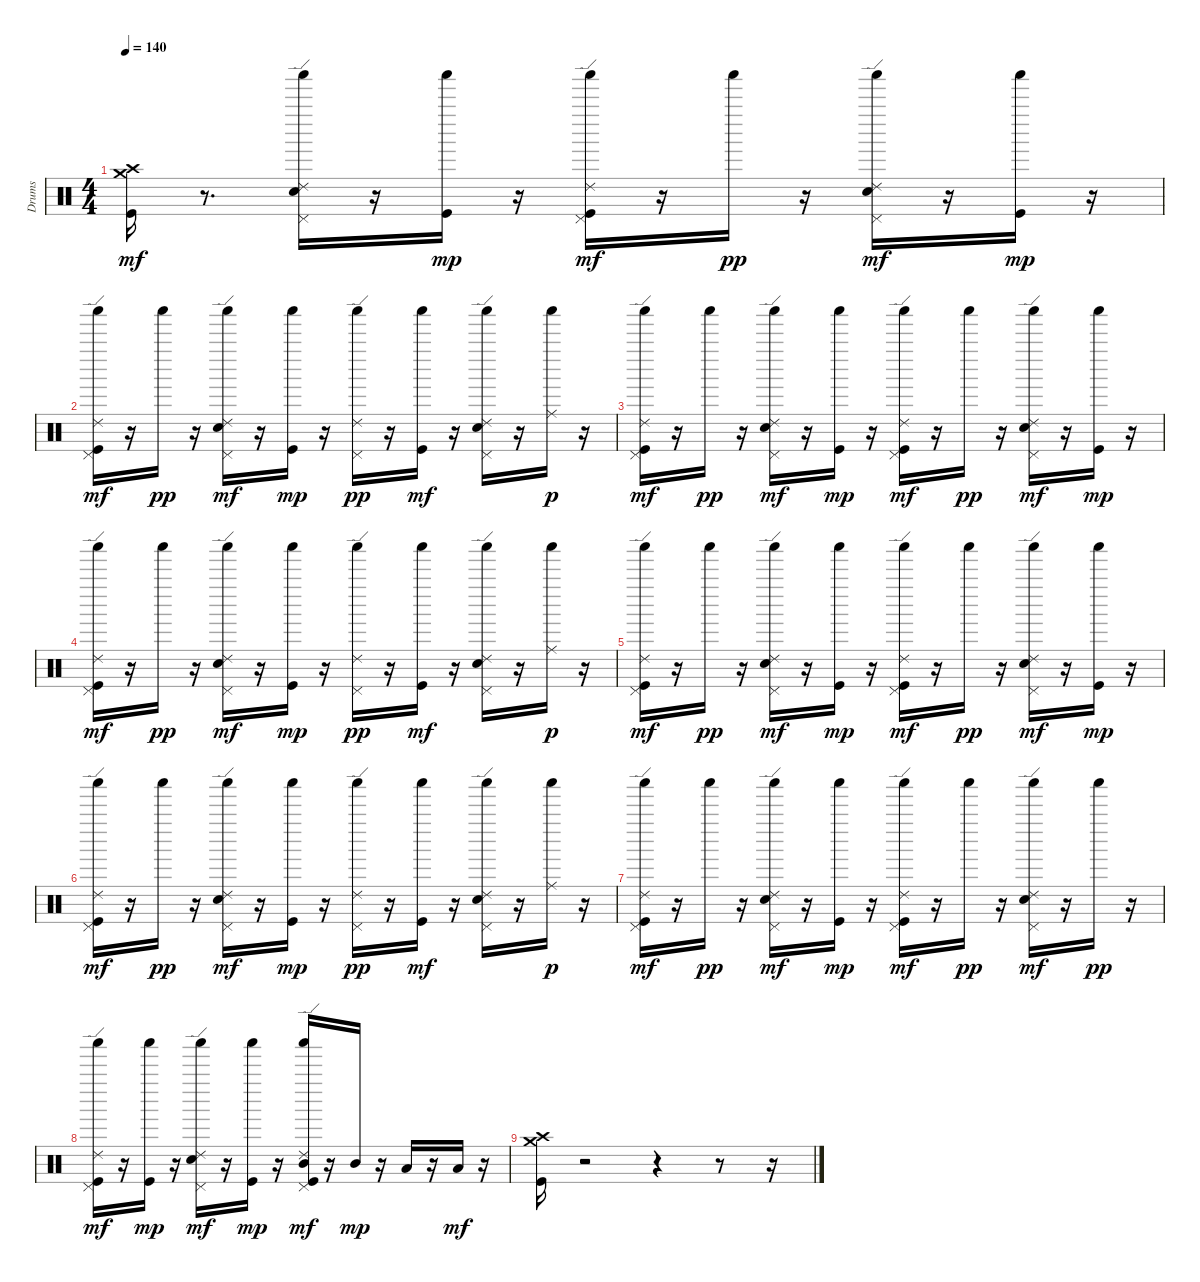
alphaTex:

\track ("Drums" "Drums") {instrument percussion}
\staff {score}
\articulation defaults
\ts (4 4)
\tempo 140
\clef neutral
\ks c
("Crash medium (hit)" "Crash high (hit)" "Kick (hit)").16{dy mf} r.8{d} ("Pedal Hi-Hat (hit)" "Ride (edge) 2" "Shaker (hit)" "Snare (hit) 2").16 r.16 ("Shaker (hit)" "Kick (hit)").16{dy mp} r.16 ("Pedal Hi-Hat (hit)" "Ride (edge) 2" "Shaker (hit)" "Kick (hit)").16{dy mf} r.16 "Shaker (hit)".16{dy pp} r.16 ("Pedal Hi-Hat (hit)" "Ride (edge) 2" "Shaker (hit)" "Snare (hit) 2").16{dy mf} r.16 ("Shaker (hit)" "Kick (hit)").16{dy mp} r.16 |
("Pedal Hi-Hat (hit)" "Ride (edge) 2" "Shaker (hit)" "Kick (hit)").16{dy mf} r.16 "Shaker (hit)".16{dy pp} r.16 ("Pedal Hi-Hat (hit)" "Ride (edge) 2" "Shaker (hit)" "Snare (hit) 2").16{dy mf} r.16 ("Shaker (hit)" "Kick (hit)").16{dy mp} r.16 ("Pedal Hi-Hat (hit)" "Ride (edge) 2" "Shaker (hit)").16{dy pp} r.16 ("Shaker (hit)" "Kick (hit)").16{dy mf} r.16 ("Pedal Hi-Hat (hit)" "Ride (edge) 2" "Shaker (hit)" "Snare (hit) 2").16 r.16 ("Shaker (hit)" "Ride (middle)").16{dy p} r.16 |
("Pedal Hi-Hat (hit)" "Ride (edge) 2" "Shaker (hit)" "Kick (hit)").16{dy mf} r.16 "Shaker (hit)".16{dy pp} r.16 ("Pedal Hi-Hat (hit)" "Ride (edge) 2" "Shaker (hit)" "Snare (hit) 2").16{dy mf} r.16 ("Shaker (hit)" "Kick (hit)").16{dy mp} r.16 ("Pedal Hi-Hat (hit)" "Ride (edge) 2" "Shaker (hit)" "Kick (hit)").16{dy mf} r.16 "Shaker (hit)".16{dy pp} r.16 ("Pedal Hi-Hat (hit)" "Ride (edge) 2" "Shaker (hit)" "Snare (hit) 2").16{dy mf} r.16 ("Shaker (hit)" "Kick (hit)").16{dy mp} r.16 |
("Pedal Hi-Hat (hit)" "Ride (edge) 2" "Shaker (hit)" "Kick (hit)").16{dy mf} r.16 "Shaker (hit)".16{dy pp} r.16 ("Pedal Hi-Hat (hit)" "Ride (edge) 2" "Shaker (hit)" "Snare (hit) 2").16{dy mf} r.16 ("Shaker (hit)" "Kick (hit)").16{dy mp} r.16 ("Pedal Hi-Hat (hit)" "Ride (edge) 2" "Shaker (hit)").16{dy pp} r.16 ("Shaker (hit)" "Kick (hit)").16{dy mf} r.16 ("Pedal Hi-Hat (hit)" "Ride (edge) 2" "Shaker (hit)" "Snare (hit) 2").16 r.16 ("Shaker (hit)" "Ride (middle)").16{dy p} r.16 |
("Pedal Hi-Hat (hit)" "Ride (edge) 2" "Shaker (hit)" "Kick (hit)").16{dy mf} r.16 "Shaker (hit)".16{dy pp} r.16 ("Pedal Hi-Hat (hit)" "Ride (edge) 2" "Shaker (hit)" "Snare (hit) 2").16{dy mf} r.16 ("Shaker (hit)" "Kick (hit)").16{dy mp} r.16 ("Pedal Hi-Hat (hit)" "Ride (edge) 2" "Shaker (hit)" "Kick (hit)").16{dy mf} r.16 "Shaker (hit)".16{dy pp} r.16 ("Pedal Hi-Hat (hit)" "Ride (edge) 2" "Shaker (hit)" "Snare (hit) 2").16{dy mf} r.16 ("Shaker (hit)" "Kick (hit)").16{dy mp} r.16 |
("Pedal Hi-Hat (hit)" "Ride (edge) 2" "Shaker (hit)" "Kick (hit)").16{dy mf} r.16 "Shaker (hit)".16{dy pp} r.16 ("Pedal Hi-Hat (hit)" "Ride (edge) 2" "Shaker (hit)" "Snare (hit) 2").16{dy mf} r.16 ("Shaker (hit)" "Kick (hit)").16{dy mp} r.16 ("Pedal Hi-Hat (hit)" "Ride (edge) 2" "Shaker (hit)").16{dy pp} r.16 ("Shaker (hit)" "Kick (hit)").16{dy mf} r.16 ("Pedal Hi-Hat (hit)" "Ride (edge) 2" "Shaker (hit)" "Snare (hit) 2").16 r.16 ("Shaker (hit)" "Ride (middle)").16{dy p} r.16 |
("Shaker (hit)" "Ride (edge) 2" "Pedal Hi-Hat (hit)" "Kick (hit)").16{dy mf} r.16 "Shaker (hit)".16{dy pp} r.16 ("Shaker (hit)" "Ride (edge) 2" "Pedal Hi-Hat (hit)" "Snare (hit) 2").16{dy mf} r.16 ("Shaker (hit)" "Kick (hit)").16{dy mp} r.16 ("Shaker (hit)" "Ride (edge) 2" "Pedal Hi-Hat (hit)" "Kick (hit)").16{dy mf} r.16 "Shaker (hit)".16{dy pp} r.16 ("Shaker (hit)" "Ride (edge) 2" "Pedal Hi-Hat (hit)" "Snare (hit) 2").16{dy mf} r.16 "Shaker (hit)".16{dy pp} r.16 |
("Shaker (hit)" "Ride (edge) 2" "Pedal Hi-Hat (hit)" "Kick (hit)").16{dy mf} r.16 ("Shaker (hit)" "Kick (hit)").16{dy mp} r.16 ("Shaker (hit)" "Ride (edge) 2" "Pedal Hi-Hat (hit)" "Snare (hit) 2").16{dy mf} r.16 ("Shaker (hit)" "Kick (hit)").16{dy mp} r.16 ("Shaker (hit)" "Ride (edge) 2" "Mid Tom (hit)" "Pedal Hi-Hat (hit)" "Kick (hit)").16{dy mf} r.16 "Mid Tom (hit)".16{dy mp} r.16 "Low Tom (hit)".16 r.16 "Low Floor Tom (hit)".16{dy mf} r.16 |
("Crash medium (hit)" "Crash high (hit)" "Kick (hit)").16 r.2 r.4 r.8 r.16
